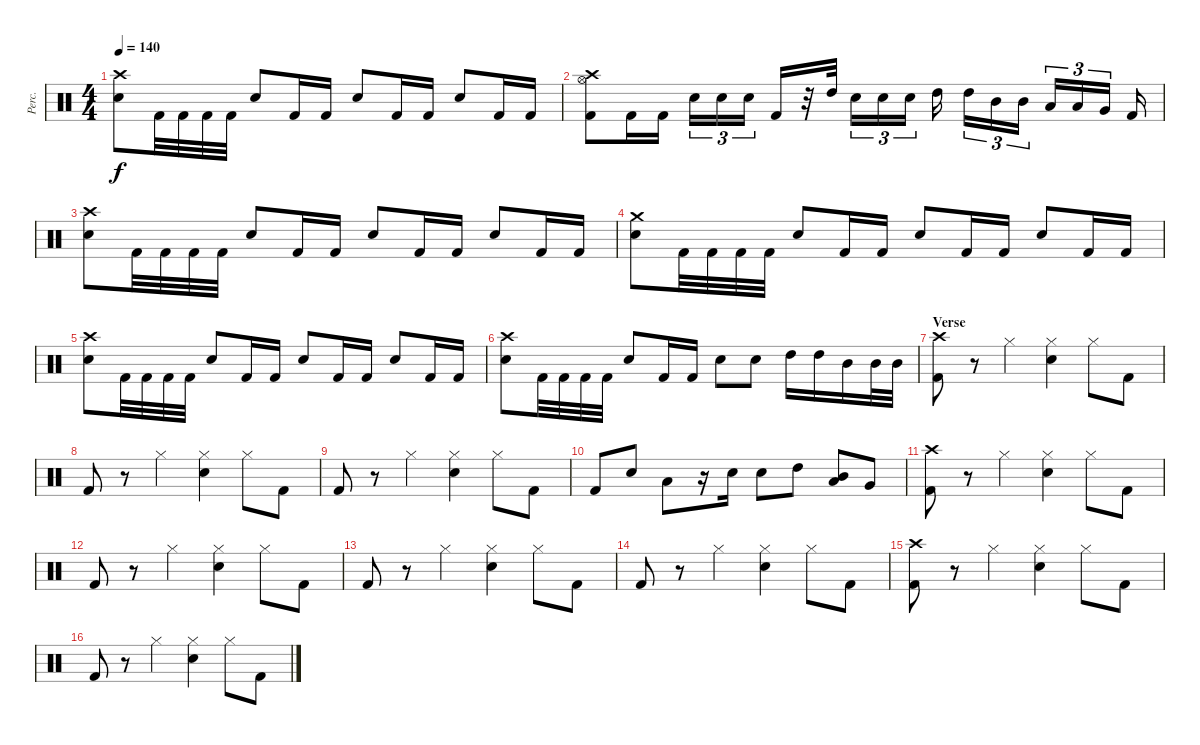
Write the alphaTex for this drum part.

\track ("Perc." "Perc.") {instrument percussion}
\staff {score}
\articulation defaults
\ts (4 4)
\tempo 140
\clef neutral
\ks c
("Crash high (hit)" "Electric Snare (hit)").8{dy f} "Kick (hit) 2".32 "Kick (hit) 2".32 "Kick (hit) 2".32 "Kick (hit) 2".32 "Electric Snare (hit)".8 "Kick (hit) 2".16 "Kick (hit) 2".16 "Electric Snare (hit)".8 "Kick (hit) 2".16 "Kick (hit) 2".16 "Electric Snare (hit)".8 "Kick (hit) 2".16 "Kick (hit) 2".16 |
("Crash high (hit)" "Hi-Hat (open)" "Kick (hit) 2").8 "Kick (hit) 2".16 "Kick (hit) 2".16 "Electric Snare (hit)".16{tu (3 2)} "Electric Snare (hit)".16{tu (3 2)} "Electric Snare (hit)".16{tu (3 2)} "Kick (hit) 2".16 r.32 "High Tom (hit)".32 "Electric Snare (hit)".16{tu (3 2)} "Electric Snare (hit)".16{tu (3 2)} "Electric Snare (hit)".16{tu (3 2)} "High Tom (hit)".16 "High Tom (hit)".16{tu (3 2)} "Mid Tom (hit)".16{tu (3 2)} "Mid Tom (hit)".16{tu (3 2)} "Low Tom (hit)".16{tu (3 2)} "Low Tom (hit)".16{tu (3 2)} "Very Low Tom (hit)".16{tu (3 2)} "Kick (hit) 2".16 |
("Crash high (hit)" "Electric Snare (hit)").8 "Kick (hit) 2".32 "Kick (hit) 2".32 "Kick (hit) 2".32 "Kick (hit) 2".32 "Electric Snare (hit)".8 "Kick (hit) 2".16 "Kick (hit) 2".16 "Electric Snare (hit)".8 "Kick (hit) 2".16 "Kick (hit) 2".16 "Electric Snare (hit)".8 "Kick (hit) 2".16 "Kick (hit) 2".16 |
("Crash medium (hit)" "Electric Snare (hit)").8 "Kick (hit) 2".32 "Kick (hit) 2".32 "Kick (hit) 2".32 "Kick (hit) 2".32 "Electric Snare (hit)".8 "Kick (hit) 2".16 "Kick (hit) 2".16 "Electric Snare (hit)".8 "Kick (hit) 2".16 "Kick (hit) 2".16 "Electric Snare (hit)".8 "Kick (hit) 2".16 "Kick (hit) 2".16 |
("Crash high (hit)" "Electric Snare (hit)").8 "Kick (hit) 2".32 "Kick (hit) 2".32 "Kick (hit) 2".32 "Kick (hit) 2".32 "Electric Snare (hit)".8 "Kick (hit) 2".16 "Kick (hit) 2".16 "Electric Snare (hit)".8 "Kick (hit) 2".16 "Kick (hit) 2".16 "Electric Snare (hit)".8 "Kick (hit) 2".16 "Kick (hit) 2".16 |
("Crash high (hit)" "Electric Snare (hit)").8 "Kick (hit) 2".32 "Kick (hit) 2".32 "Kick (hit) 2".32 "Kick (hit) 2".32 "Electric Snare (hit)".8 "Kick (hit) 2".16 "Kick (hit) 2".16 "Electric Snare (hit)".8 "Electric Snare (hit)".8 "High Tom (hit)".16 "High Tom (hit)".16 "Mid Tom (hit)".16 "Mid Tom (hit)".32 "Mid Tom (hit)".32 |
\section ("" "Verse")
("Crash high (hit)" "Kick (hit) 2").8 r.8 "Hi-Hat (closed)".4 ("Electric Snare (hit)" "Hi-Hat (closed)").4 "Hi-Hat (closed)".8 "Kick (hit) 2".8 |
"Kick (hit) 2".8 r.8 "Hi-Hat (closed)".4 ("Electric Snare (hit)" "Hi-Hat (closed)").4 "Hi-Hat (closed)".8 "Kick (hit) 2".8 |
"Kick (hit) 2".8 r.8 "Hi-Hat (closed)".4 ("Electric Snare (hit)" "Hi-Hat (closed)").4 "Hi-Hat (closed)".8 "Kick (hit) 2".8 |
"Kick (hit) 2".8 "Electric Snare (hit)".8 "Low Tom (hit)".8 r.16 "Electric Snare (hit)".16 "Electric Snare (hit)".8 "High Tom (hit)".8 ("Low Tom (hit)" "Mid Tom (hit)").8 "Very Low Tom (hit)".8 |
("Crash high (hit)" "Kick (hit) 2").8 r.8 "Hi-Hat (closed)".4 ("Electric Snare (hit)" "Hi-Hat (closed)").4 "Hi-Hat (closed)".8 "Kick (hit) 2".8 |
"Kick (hit) 2".8 r.8 "Hi-Hat (closed)".4 ("Electric Snare (hit)" "Hi-Hat (closed)").4 "Hi-Hat (closed)".8 "Kick (hit) 2".8 |
"Kick (hit) 2".8 r.8 "Hi-Hat (closed)".4 ("Electric Snare (hit)" "Hi-Hat (closed)").4 "Hi-Hat (closed)".8 "Kick (hit) 2".8 |
"Kick (hit) 2".8 r.8 "Hi-Hat (closed)".4 ("Electric Snare (hit)" "Hi-Hat (closed)").4 "Hi-Hat (closed)".8 "Kick (hit) 2".8 |
("Crash high (hit)" "Kick (hit) 2").8 r.8 "Hi-Hat (closed)".4 ("Electric Snare (hit)" "Hi-Hat (closed)").4 "Hi-Hat (closed)".8 "Kick (hit) 2".8 |
"Kick (hit) 2".8 r.8 "Hi-Hat (closed)".4 ("Electric Snare (hit)" "Hi-Hat (closed)").4 "Hi-Hat (closed)".8 "Kick (hit) 2".8
